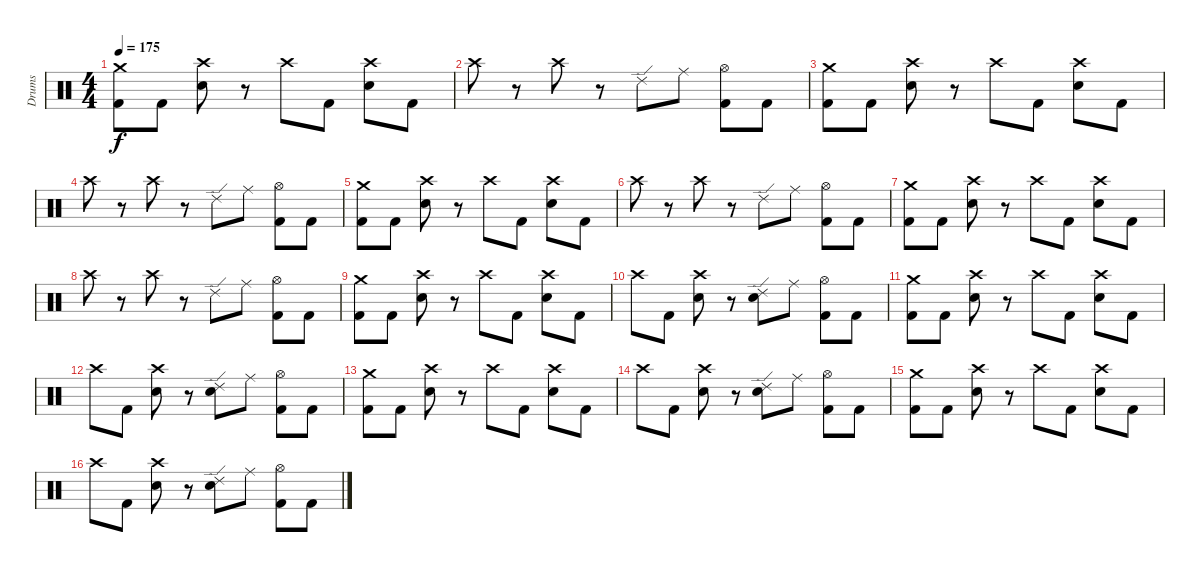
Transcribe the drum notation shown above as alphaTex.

\track ("Drums" "Drums") {instrument percussion}
\staff {score}
\articulation defaults
\ts (4 4)
\tempo 175
\clef neutral
\ks c
("Crash medium (hit)" "Kick (hit) 2").8{dy f} "Kick (hit) 2".8 ("Crash high (hit)" "Electric Snare (hit)").8 r.8 "Crash high (hit)".8 "Kick (hit) 2".8 ("Crash high (hit)" "Electric Snare (hit)").8 "Kick (hit) 2".8 |
"Crash high (hit)".8 r.8 "Crash high (hit)".8 r.8 "Ride (edge) 2".8 "Ride (middle)".8 ("Hi-Hat (open)" "Kick (hit) 2").8 "Kick (hit) 2".8 |
("Crash medium (hit)" "Kick (hit) 2").8 "Kick (hit) 2".8 ("Crash high (hit)" "Electric Snare (hit)").8 r.8 "Crash high (hit)".8 "Kick (hit) 2".8 ("Crash high (hit)" "Electric Snare (hit)").8 "Kick (hit) 2".8 |
"Crash high (hit)".8 r.8 "Crash high (hit)".8 r.8 "Ride (edge) 2".8 "Ride (middle)".8 ("Hi-Hat (open)" "Kick (hit) 2").8 "Kick (hit) 2".8 |
("Crash medium (hit)" "Kick (hit) 2").8 "Kick (hit) 2".8 ("Crash high (hit)" "Electric Snare (hit)").8 r.8 "Crash high (hit)".8 "Kick (hit) 2".8 ("Crash high (hit)" "Electric Snare (hit)").8 "Kick (hit) 2".8 |
"Crash high (hit)".8 r.8 "Crash high (hit)".8 r.8 "Ride (edge) 2".8 "Ride (middle)".8 ("Hi-Hat (open)" "Kick (hit) 2").8 "Kick (hit) 2".8 |
("Crash medium (hit)" "Kick (hit) 2").8 "Kick (hit) 2".8 ("Crash high (hit)" "Electric Snare (hit)").8 r.8 "Crash high (hit)".8 "Kick (hit) 2".8 ("Crash high (hit)" "Electric Snare (hit)").8 "Kick (hit) 2".8 |
"Crash high (hit)".8 r.8 "Crash high (hit)".8 r.8 "Ride (edge) 2".8 "Ride (middle)".8 ("Hi-Hat (open)" "Kick (hit) 2").8 "Kick (hit) 2".8 |
("Crash medium (hit)" "Kick (hit) 2").8 "Kick (hit) 2".8 ("Crash high (hit)" "Electric Snare (hit)").8 r.8 "Crash high (hit)".8 "Kick (hit) 2".8 ("Crash high (hit)" "Electric Snare (hit)").8 "Kick (hit) 2".8 |
"Crash high (hit)".8 "Kick (hit) 2".8 ("Crash high (hit)" "Electric Snare (hit)").8 r.8 ("Ride (edge) 2" "Electric Snare (hit)").8 "Ride (middle)".8 ("Hi-Hat (open)" "Kick (hit) 2").8 "Kick (hit) 2".8 |
("Crash medium (hit)" "Kick (hit) 2").8 "Kick (hit) 2".8 ("Crash high (hit)" "Electric Snare (hit)").8 r.8 "Crash high (hit)".8 "Kick (hit) 2".8 ("Crash high (hit)" "Electric Snare (hit)").8 "Kick (hit) 2".8 |
"Crash high (hit)".8 "Kick (hit) 2".8 ("Crash high (hit)" "Electric Snare (hit)").8 r.8 ("Ride (edge) 2" "Electric Snare (hit)").8 "Ride (middle)".8 ("Hi-Hat (open)" "Kick (hit) 2").8 "Kick (hit) 2".8 |
("Crash medium (hit)" "Kick (hit) 2").8 "Kick (hit) 2".8 ("Crash high (hit)" "Electric Snare (hit)").8 r.8 "Crash high (hit)".8 "Kick (hit) 2".8 ("Crash high (hit)" "Electric Snare (hit)").8 "Kick (hit) 2".8 |
"Crash high (hit)".8 "Kick (hit) 2".8 ("Crash high (hit)" "Electric Snare (hit)").8 r.8 ("Ride (edge) 2" "Electric Snare (hit)").8 "Ride (middle)".8 ("Hi-Hat (open)" "Kick (hit) 2").8 "Kick (hit) 2".8 |
("Crash medium (hit)" "Kick (hit) 2").8 "Kick (hit) 2".8 ("Crash high (hit)" "Electric Snare (hit)").8 r.8 "Crash high (hit)".8 "Kick (hit) 2".8 ("Crash high (hit)" "Electric Snare (hit)").8 "Kick (hit) 2".8 |
"Crash high (hit)".8 "Kick (hit) 2".8 ("Crash high (hit)" "Electric Snare (hit)").8 r.8 ("Ride (edge) 2" "Electric Snare (hit)").8 "Ride (middle)".8 ("Hi-Hat (open)" "Kick (hit) 2").8 "Kick (hit) 2".8
